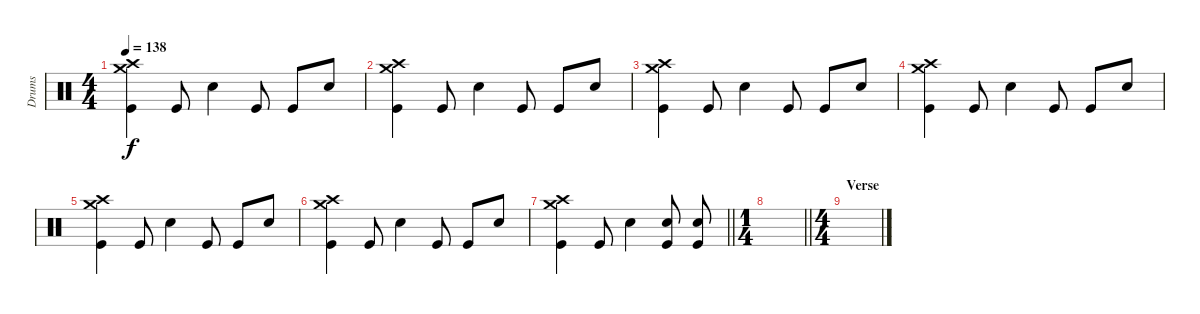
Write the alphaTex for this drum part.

\track ("Drums" "Drums") {instrument percussion}
\staff {score}
\articulation defaults
\ts (4 4)
\tempo 138
\clef neutral
\ks c
("Crash medium (hit)" "Crash high (hit)" "Kick (hit)").4{dy f} "Kick (hit)".8 "Electric Snare (hit)".4 "Kick (hit)".8 "Kick (hit)".8 "Electric Snare (hit)".8 |
("Crash medium (hit)" "Crash high (hit)" "Kick (hit)").4 "Kick (hit)".8 "Electric Snare (hit)".4 "Kick (hit)".8 "Kick (hit)".8 "Electric Snare (hit)".8 |
("Crash medium (hit)" "Crash high (hit)" "Kick (hit)").4 "Kick (hit)".8 "Electric Snare (hit)".4 "Kick (hit)".8 "Kick (hit)".8 "Electric Snare (hit)".8 |
("Crash medium (hit)" "Crash high (hit)" "Kick (hit)").4 "Kick (hit)".8 "Electric Snare (hit)".4 "Kick (hit)".8 "Kick (hit)".8 "Electric Snare (hit)".8 |
("Crash medium (hit)" "Crash high (hit)" "Kick (hit)").4 "Kick (hit)".8 "Electric Snare (hit)".4 "Kick (hit)".8 "Kick (hit)".8 "Electric Snare (hit)".8 |
("Crash medium (hit)" "Crash high (hit)" "Kick (hit)").4 "Kick (hit)".8 "Electric Snare (hit)".4 "Kick (hit)".8 "Kick (hit)".8 "Electric Snare (hit)".8 |
\barLineRight lightlight
("Crash medium (hit)" "Crash high (hit)" "Kick (hit)").4 "Kick (hit)".8 "Electric Snare (hit)".4 ("Kick (hit)" "Electric Snare (hit)").8 ("Kick (hit)" "Electric Snare (hit)").8 |
\ts (1 4)
\barLineRight lightlight
|
\ts (4 4)
\section ("" "Verse")
